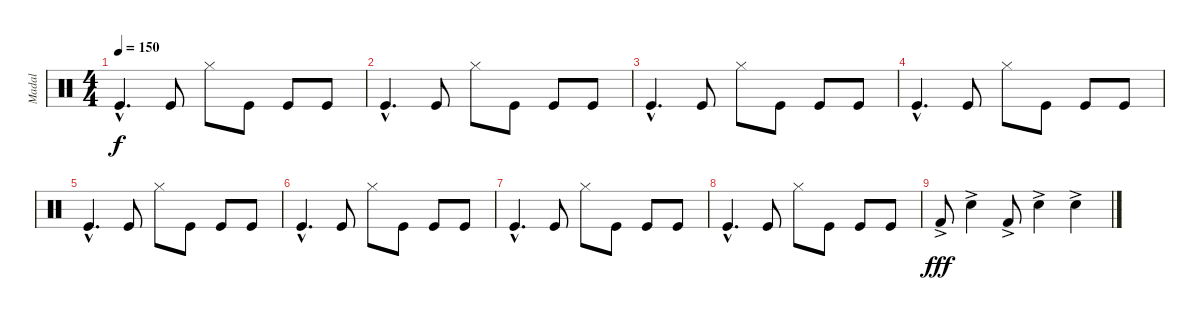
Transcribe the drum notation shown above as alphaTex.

\track ("Madal" "Madal") {instrument percussion}
\staff {score}
\articulation defaults
\ts (4 4)
\tempo 150
\clef neutral
\ks c "Kick (hit)"{hac}.4{d dy f} "Kick (hit)".8 "Hi-Hat (closed)".8 "Kick (hit)".8 "Kick (hit)".8 "Kick (hit)".8
|
"Kick (hit)"{hac}.4{d} "Kick (hit)".8 "Hi-Hat (closed)".8 "Kick (hit)".8 "Kick (hit)".8 "Kick (hit)".8 |
"Kick (hit)"{hac}.4{d} "Kick (hit)".8 "Hi-Hat (closed)".8 "Kick (hit)".8 "Kick (hit)".8 "Kick (hit)".8 |
"Kick (hit)"{hac}.4{d} "Kick (hit)".8 "Hi-Hat (closed)".8 "Kick (hit)".8 "Kick (hit)".8 "Kick (hit)".8 |
"Kick (hit)"{hac}.4{d} "Kick (hit)".8 "Hi-Hat (closed)".8 "Kick (hit)".8 "Kick (hit)".8 "Kick (hit)".8 |
"Kick (hit)"{hac}.4{d} "Kick (hit)".8 "Hi-Hat (closed)".8 "Kick (hit)".8 "Kick (hit)".8 "Kick (hit)".8 |
"Kick (hit)"{hac}.4{d} "Kick (hit)".8 "Hi-Hat (closed)".8 "Kick (hit)".8 "Kick (hit)".8 "Kick (hit)".8 |
"Kick (hit)"{hac}.4{d} "Kick (hit)".8 "Hi-Hat (closed)".8 "Kick (hit)".8 "Kick (hit)".8 "Kick (hit)".8 |
"Kick (hit) 2"{ac}.8{dy fff volume 6} "Electric Snare (hit)"{ac}.4 "Kick (hit) 2"{ac}.8 "Electric Snare (hit)"{ac}.4 "Electric Snare (hit)"{ac}.4
